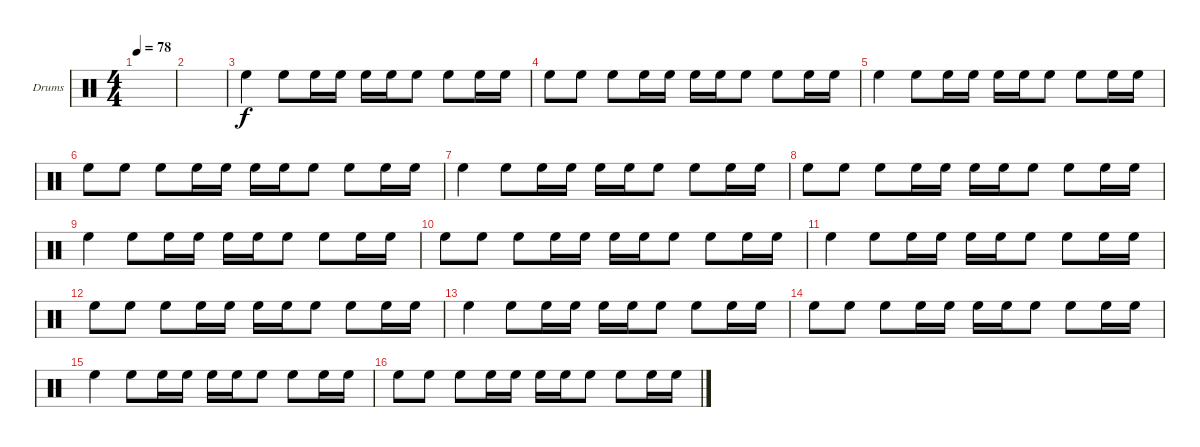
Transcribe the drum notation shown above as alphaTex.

\defaultSystemsLayout 4
\bracketExtendMode groupsimilarinstruments
\firstSystemTrackNameOrientation horizontal
\otherSystemsTrackNameOrientation horizontal
\track ("Drumkit" "Drums") {instrument percussion}
\staff {score}
\articulation defaults
\ts (4 4)
\tempo 78
\clef neutral
\scale
0.333333
\ks c
|
\scale
0.333333 |
\scale
0.333333 "High Floor Tom (hit)".4 "High Floor Tom (hit)".8 "High Floor Tom (hit)".16 "High Floor Tom (hit)".16 "High Floor Tom (hit)".16 "High Floor Tom (hit)".16 "High Floor Tom (hit)".8 "High Floor Tom (hit)".8 "High Floor Tom (hit)".16 "High Floor Tom (hit)".16 |
\scale
0.333333 "High Floor Tom (hit)".8 "High Floor Tom (hit)".8 "High Floor Tom (hit)".8 "High Floor Tom (hit)".16 "High Floor Tom (hit)".16 "High Floor Tom (hit)".16 "High Floor Tom (hit)".16 "High Floor Tom (hit)".8 "High Floor Tom (hit)".8 "High Floor Tom (hit)".16 "High Floor Tom (hit)".16 |
\scale
0.333333 "High Floor Tom (hit)".4 "High Floor Tom (hit)".8 "High Floor Tom (hit)".16 "High Floor Tom (hit)".16 "High Floor Tom (hit)".16 "High Floor Tom (hit)".16 "High Floor Tom (hit)".8 "High Floor Tom (hit)".8 "High Floor Tom (hit)".16 "High Floor Tom (hit)".16 |
\scale
0.333333 "High Floor Tom (hit)".8 "High Floor Tom (hit)".8 "High Floor Tom (hit)".8 "High Floor Tom (hit)".16 "High Floor Tom (hit)".16 "High Floor Tom (hit)".16 "High Floor Tom (hit)".16 "High Floor Tom (hit)".8 "High Floor Tom (hit)".8 "High Floor Tom (hit)".16 "High Floor Tom (hit)".16 |
\scale
0.333333 "High Floor Tom (hit)".4 "High Floor Tom (hit)".8 "High Floor Tom (hit)".16 "High Floor Tom (hit)".16 "High Floor Tom (hit)".16 "High Floor Tom (hit)".16 "High Floor Tom (hit)".8 "High Floor Tom (hit)".8 "High Floor Tom (hit)".16 "High Floor Tom (hit)".16 |
\scale
0.333333 "High Floor Tom (hit)".8 "High Floor Tom (hit)".8 "High Floor Tom (hit)".8 "High Floor Tom (hit)".16 "High Floor Tom (hit)".16 "High Floor Tom (hit)".16 "High Floor Tom (hit)".16 "High Floor Tom (hit)".8 "High Floor Tom (hit)".8 "High Floor Tom (hit)".16 "High Floor Tom (hit)".16 |
\scale
0.333333 "High Floor Tom (hit)".4 "High Floor Tom (hit)".8 "High Floor Tom (hit)".16 "High Floor Tom (hit)".16 "High Floor Tom (hit)".16 "High Floor Tom (hit)".16 "High Floor Tom (hit)".8 "High Floor Tom (hit)".8 "High Floor Tom (hit)".16 "High Floor Tom (hit)".16 |
\scale
0.333333 "High Floor Tom (hit)".8 "High Floor Tom (hit)".8 "High Floor Tom (hit)".8 "High Floor Tom (hit)".16 "High Floor Tom (hit)".16 "High Floor Tom (hit)".16 "High Floor Tom (hit)".16 "High Floor Tom (hit)".8 "High Floor Tom (hit)".8 "High Floor Tom (hit)".16 "High Floor Tom (hit)".16 |
\scale
0.333333 "High Floor Tom (hit)".4 "High Floor Tom (hit)".8 "High Floor Tom (hit)".16 "High Floor Tom (hit)".16 "High Floor Tom (hit)".16 "High Floor Tom (hit)".16 "High Floor Tom (hit)".8 "High Floor Tom (hit)".8 "High Floor Tom (hit)".16 "High Floor Tom (hit)".16 |
\scale
0.333333 "High Floor Tom (hit)".8 "High Floor Tom (hit)".8 "High Floor Tom (hit)".8 "High Floor Tom (hit)".16 "High Floor Tom (hit)".16 "High Floor Tom (hit)".16 "High Floor Tom (hit)".16 "High Floor Tom (hit)".8 "High Floor Tom (hit)".8 "High Floor Tom (hit)".16 "High Floor Tom (hit)".16 |
\scale
0.333333 "High Floor Tom (hit)".4 "High Floor Tom (hit)".8 "High Floor Tom (hit)".16 "High Floor Tom (hit)".16 "High Floor Tom (hit)".16 "High Floor Tom (hit)".16 "High Floor Tom (hit)".8 "High Floor Tom (hit)".8 "High Floor Tom (hit)".16 "High Floor Tom (hit)".16 |
\scale
0.333333 "High Floor Tom (hit)".8 "High Floor Tom (hit)".8 "High Floor Tom (hit)".8 "High Floor Tom (hit)".16 "High Floor Tom (hit)".16 "High Floor Tom (hit)".16 "High Floor Tom (hit)".16 "High Floor Tom (hit)".8 "High Floor Tom (hit)".8 "High Floor Tom (hit)".16 "High Floor Tom (hit)".16 |
\scale
0.333333 "High Floor Tom (hit)".4 "High Floor Tom (hit)".8 "High Floor Tom (hit)".16 "High Floor Tom (hit)".16 "High Floor Tom (hit)".16 "High Floor Tom (hit)".16 "High Floor Tom (hit)".8 "High Floor Tom (hit)".8 "High Floor Tom (hit)".16 "High Floor Tom (hit)".16 |
\scale
0.333333 "High Floor Tom (hit)".8 "High Floor Tom (hit)".8 "High Floor Tom (hit)".8 "High Floor Tom (hit)".16 "High Floor Tom (hit)".16 "High Floor Tom (hit)".16 "High Floor Tom (hit)".16 "High Floor Tom (hit)".8 "High Floor Tom (hit)".8 "High Floor Tom (hit)".16 "High Floor Tom (hit)".16
